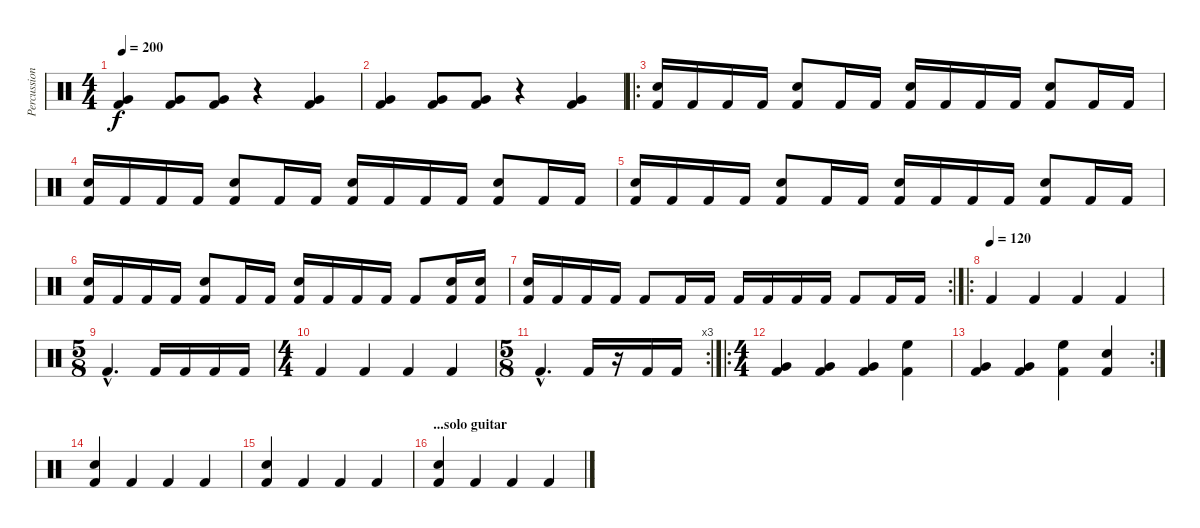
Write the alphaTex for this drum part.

\track ("Percussions" "Percussion") {instrument percussion}
\staff {score}
\articulation defaults
\ts (4 4)
\tempo 200
\clef neutral
\ks c
("Very Low Tom (hit)" "Kick (hit) 2").4{dy f} ("Very Low Tom (hit)" "Kick (hit) 2").8 ("Very Low Tom (hit)" "Kick (hit) 2").8 r.4 ("Very Low Tom (hit)" "Kick (hit) 2").4 |
("Very Low Tom (hit)" "Kick (hit) 2").4 ("Very Low Tom (hit)" "Kick (hit) 2").8 ("Very Low Tom (hit)" "Kick (hit) 2").8 r.4 ("Very Low Tom (hit)" "Kick (hit) 2").4 |
\ro
("Snare (hit) 2" "Kick (hit) 2").16 "Kick (hit) 2".16 "Kick (hit) 2".16 "Kick (hit) 2".16 ("Snare (hit) 2" "Kick (hit) 2").8 "Kick (hit) 2".16 "Kick (hit) 2".16 ("Snare (hit) 2" "Kick (hit) 2").16 "Kick (hit) 2".16 "Kick (hit) 2".16 "Kick (hit) 2".16 ("Snare (hit) 2" "Kick (hit) 2").8 "Kick (hit) 2".16 "Kick (hit) 2".16 |
("Snare (hit) 2" "Kick (hit) 2").16 "Kick (hit) 2".16 "Kick (hit) 2".16 "Kick (hit) 2".16 ("Snare (hit) 2" "Kick (hit) 2").8 "Kick (hit) 2".16 "Kick (hit) 2".16 ("Snare (hit) 2" "Kick (hit) 2").16 "Kick (hit) 2".16 "Kick (hit) 2".16 "Kick (hit) 2".16 ("Snare (hit) 2" "Kick (hit) 2").8 "Kick (hit) 2".16 "Kick (hit) 2".16 |
("Snare (hit) 2" "Kick (hit) 2").16 "Kick (hit) 2".16 "Kick (hit) 2".16 "Kick (hit) 2".16 ("Snare (hit) 2" "Kick (hit) 2").8 "Kick (hit) 2".16 "Kick (hit) 2".16 ("Snare (hit) 2" "Kick (hit) 2").16 "Kick (hit) 2".16 "Kick (hit) 2".16 "Kick (hit) 2".16 ("Snare (hit) 2" "Kick (hit) 2").8 "Kick (hit) 2".16 "Kick (hit) 2".16 |
("Snare (hit) 2" "Kick (hit) 2").16 "Kick (hit) 2".16 "Kick (hit) 2".16 "Kick (hit) 2".16 ("Snare (hit) 2" "Kick (hit) 2").8 "Kick (hit) 2".16 "Kick (hit) 2".16 ("Snare (hit) 2" "Kick (hit) 2").16 "Kick (hit) 2".16 "Kick (hit) 2".16 "Kick (hit) 2".16 "Kick (hit) 2".8 ("Snare (hit) 2" "Kick (hit) 2").16 ("Snare (hit) 2" "Kick (hit) 2").16 |
\rc 2
("Snare (hit) 2" "Kick (hit) 2").16 "Kick (hit) 2".16 "Kick (hit) 2".16 "Kick (hit) 2".16 "Kick (hit) 2".8 "Kick (hit) 2".16 "Kick (hit) 2".16 "Kick (hit) 2".16 "Kick (hit) 2".16 "Kick (hit) 2".16 "Kick (hit) 2".16 "Kick (hit) 2".8 "Kick (hit) 2".16 "Kick (hit) 2".16 |
\ro
\tempo (120)
"Kick (hit) 2".4 "Kick (hit) 2".4 "Kick (hit) 2".4 "Kick (hit) 2".4 |
\ts (5 8)
"Kick (hit) 2"{hac}.4{d} "Kick (hit) 2".16 "Kick (hit) 2".16 "Kick (hit) 2".16 "Kick (hit) 2".16 |
\ts (4 4)
"Kick (hit) 2".4 "Kick (hit) 2".4 "Kick (hit) 2".4 "Kick (hit) 2".4 |
\rc 3
\ts (5 8)
"Kick (hit) 2"{hac}.4{d} "Kick (hit) 2".16 r.16 "Kick (hit) 2".16 "Kick (hit) 2".16 |
\ro
\ts (4 4)
("Very Low Tom (hit)" "Kick (hit) 2").4 ("Very Low Tom (hit)" "Kick (hit) 2").4 ("Very Low Tom (hit)" "Kick (hit) 2").4 ("High Floor Tom (hit)" "Kick (hit) 2").4 |
\rc 2
("Very Low Tom (hit)" "Kick (hit) 2").4 ("Very Low Tom (hit)" "Kick (hit) 2").4 ("High Floor Tom (hit)" "Kick (hit) 2").4 ("Electric Snare (hit)" "Kick (hit) 2").4 |
("Snare (hit) 2" "Kick (hit) 2").4 "Kick (hit) 2".4 "Kick (hit) 2".4 "Kick (hit) 2".4 |
("Snare (hit) 2" "Kick (hit) 2").4 "Kick (hit) 2".4 "Kick (hit) 2".4 "Kick (hit) 2".4 |
\section ("" "...solo guitar")
("Snare (hit) 2" "Kick (hit) 2").4 "Kick (hit) 2".4 "Kick (hit) 2".4 "Kick (hit) 2".4
